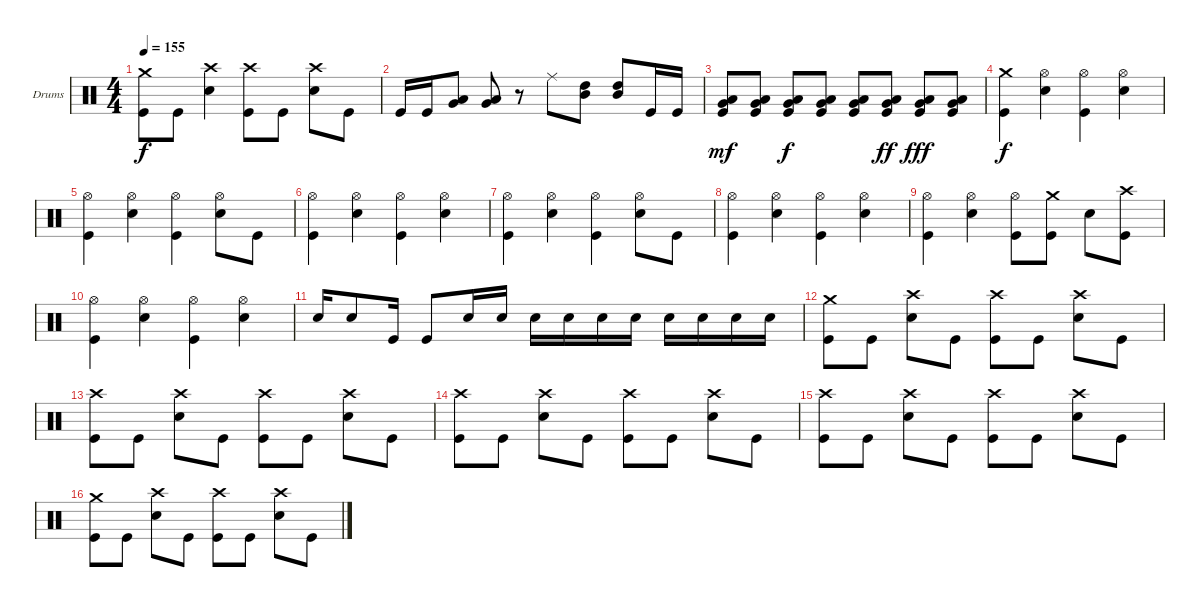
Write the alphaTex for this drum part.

\defaultSystemsLayout 4
\bracketExtendMode groupsimilarinstruments
\firstSystemTrackNameOrientation horizontal
\otherSystemsTrackNameOrientation horizontal
\track ("Drumkit" "Drums") {instrument percussion}
\staff {score}
\articulation defaults
\ts (4 4)
\tempo 155
\clef neutral
\scale
0.333333
\ks c
("Crash medium (hit)" "Kick (hit)").8{dy f} "Kick (hit)".8 ("Crash high (hit)" "Snare (hit) 2").4 ("Crash high (hit)" "Kick (hit)").8 "Kick (hit)".8 ("Crash high (hit)" "Snare (hit) 2").8 "Kick (hit)".8 |
\scale
0.333333 "Kick (hit)".16 "Kick (hit)".16 ("Very Low Tom (hit)" "Low Tom (hit)").8 ("Very Low Tom (hit)" "Low Tom (hit)").8 r.8 "Ride (middle)".8 ("High Tom (hit)" "Mid Tom (hit)").8 ("High Tom (hit)" "Mid Tom (hit)").8 "Kick (hit)".16 "Kick (hit)".16 |
\scale
0.333333 ("Very Low Tom (hit)" "Low Tom (hit)" "Kick (hit)").8{dy mf} ("Very Low Tom (hit)" "Low Tom (hit)" "Kick (hit)").8 ("Very Low Tom (hit)" "Low Tom (hit)" "Kick (hit)").8{dy f} ("Very Low Tom (hit)" "Low Tom (hit)" "Kick (hit)").8 ("Very Low Tom (hit)" "Low Tom (hit)" "Kick (hit)").8 ("Very Low Tom (hit)" "Low Tom (hit)" "Kick (hit)").8{dy ff} ("Very Low Tom (hit)" "Low Tom (hit)" "Kick (hit)").8{dy fff} ("Very Low Tom (hit)" "Low Tom (hit)" "Kick (hit)").8 |
\scale
0.333333 ("Crash medium (hit)" "Kick (hit)").4{dy f} ("Hi-Hat (open)" "Snare (hit) 2").4 ("Hi-Hat (open)" "Kick (hit)").4 ("Hi-Hat (open)" "Snare (hit) 2").4 |
\scale
0.333333 ("Hi-Hat (open)" "Kick (hit)").4 ("Hi-Hat (open)" "Snare (hit) 2").4 ("Hi-Hat (open)" "Kick (hit)").4 ("Hi-Hat (open)" "Snare (hit) 2").8 "Kick (hit)".8 |
\scale
0.333333 ("Hi-Hat (open)" "Kick (hit)").4 ("Hi-Hat (open)" "Snare (hit) 2").4 ("Hi-Hat (open)" "Kick (hit)").4 ("Hi-Hat (open)" "Snare (hit) 2").4 |
\scale
0.333333 ("Hi-Hat (open)" "Kick (hit)").4 ("Hi-Hat (open)" "Snare (hit) 2").4 ("Hi-Hat (open)" "Kick (hit)").4 ("Hi-Hat (open)" "Snare (hit) 2").8 "Kick (hit)".8 |
\scale
0.333333 ("Hi-Hat (open)" "Kick (hit)").4 ("Hi-Hat (open)" "Snare (hit) 2").4 ("Hi-Hat (open)" "Kick (hit)").4 ("Hi-Hat (open)" "Snare (hit) 2").4 |
\scale
0.333333 ("Hi-Hat (open)" "Kick (hit)").4 ("Hi-Hat (open)" "Snare (hit) 2").4 ("Hi-Hat (open)" "Kick (hit)").8 ("Crash medium (hit)" "Kick (hit)").8 "Snare (hit) 2".8 ("Crash high (hit)" "Kick (hit)").8 |
\scale
0.333333 ("Hi-Hat (open)" "Kick (hit)").4 ("Hi-Hat (open)" "Snare (hit) 2").4 ("Hi-Hat (open)" "Kick (hit)").4 ("Hi-Hat (open)" "Snare (hit) 2").4 |
\scale
0.333333 "Snare (hit) 2".16 "Snare (hit) 2".8 "Kick (hit)".16 "Kick (hit)".8 "Snare (hit) 2".16 "Snare (hit) 2".16 "Snare (hit) 2".16 "Snare (hit) 2".16 "Snare (hit) 2".16 "Snare (hit) 2".16 "Snare (hit) 2".16 "Snare (hit) 2".16 "Snare (hit) 2".16 "Snare (hit) 2".16 |
\scale
0.333333 ("Crash medium (hit)" "Kick (hit)").8 "Kick (hit)".8 ("Crash high (hit)" "Snare (hit) 2").8 "Kick (hit)".8 ("Crash high (hit)" "Kick (hit)").8 "Kick (hit)".8 ("Crash high (hit)" "Snare (hit) 2").8 "Kick (hit)".8 |
\scale
0.333333 ("Crash high (hit)" "Kick (hit)").8 "Kick (hit)".8 ("Crash high (hit)" "Snare (hit) 2").8 "Kick (hit)".8 ("Crash high (hit)" "Kick (hit)").8 "Kick (hit)".8 ("Crash high (hit)" "Snare (hit) 2").8 "Kick (hit)".8 |
\scale
0.333333 ("Crash high (hit)" "Kick (hit)").8 "Kick (hit)".8 ("Crash high (hit)" "Snare (hit) 2").8 "Kick (hit)".8 ("Crash high (hit)" "Kick (hit)").8 "Kick (hit)".8 ("Crash high (hit)" "Snare (hit) 2").8 "Kick (hit)".8 |
\scale
0.333333 ("Crash high (hit)" "Kick (hit)").8 "Kick (hit)".8 ("Crash high (hit)" "Snare (hit) 2").8 "Kick (hit)".8 ("Crash high (hit)" "Kick (hit)").8 "Kick (hit)".8 ("Crash high (hit)" "Snare (hit) 2").8 "Kick (hit)".8 |
\scale
0.333333 ("Crash medium (hit)" "Kick (hit)").8 "Kick (hit)".8 ("Crash high (hit)" "Snare (hit) 2").8 "Kick (hit)".8 ("Crash high (hit)" "Kick (hit)").8 "Kick (hit)".8 ("Crash high (hit)" "Snare (hit) 2").8 "Kick (hit)".8
